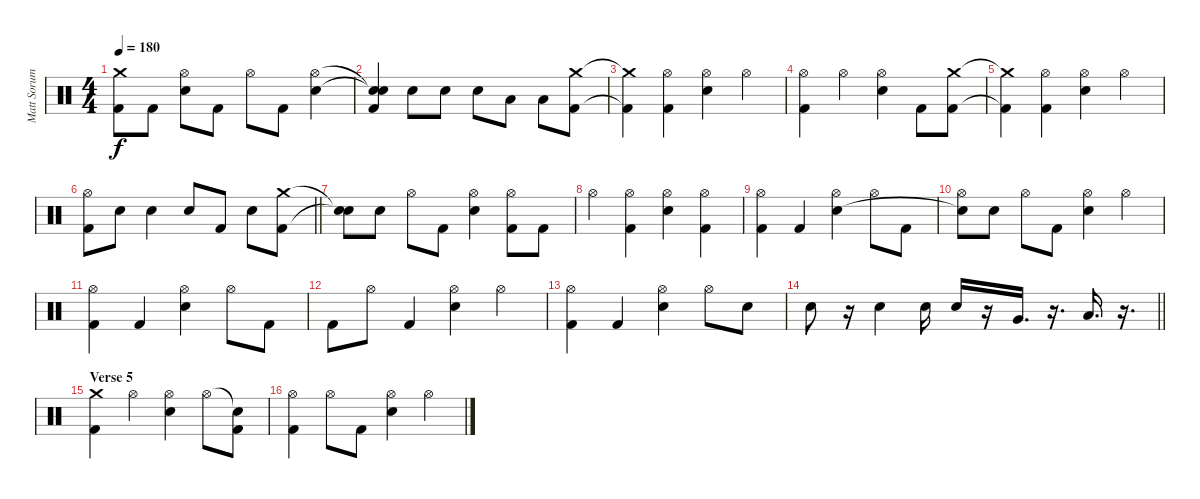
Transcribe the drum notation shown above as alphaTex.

\track ("Matt Sorum" "Matt Sorum") {instrument percussion}
\staff {score}
\articulation defaults
\ts (4 4)
\tempo 180
\clef neutral
\ks c
("Crash medium (hit)"{t} "Kick (hit) 2"{t}).8{dy f} "Kick (hit) 2".8 ("Hi-Hat (open)" "Electric Snare (hit)").8 "Kick (hit) 2".8 "Hi-Hat (open)".8 "Kick (hit) 2".8 ("Hi-Hat (open)" "Electric Snare (hit)").4 |
("Snare (hit)"{t} "Snare (hit)"{t} "Kick (hit) 2").4 "Electric Snare (hit)".8 "Electric Snare (hit)".8 "Electric Snare (hit)".8 "Low Tom (hit)".8 "Low Tom (hit)".8 ("Crash medium (hit)" "Kick (hit) 2").8 |
("Crash medium (hit)"{t} "Kick (hit) 2"{t}).4 ("Hi-Hat (open)" "Kick (hit) 2").4 ("Hi-Hat (open)" "Electric Snare (hit)").4 "Hi-Hat (open)".4 |
("Hi-Hat (open)" "Kick (hit) 2").4 "Hi-Hat (open)".4 ("Hi-Hat (open)" "Electric Snare (hit)").4 "Kick (hit) 2".8 ("Crash medium (hit)" "Kick (hit) 2").8 |
("Crash medium (hit)"{t} "Kick (hit) 2"{t}).4 ("Hi-Hat (open)" "Kick (hit) 2").4 ("Hi-Hat (open)" "Electric Snare (hit)").4 "Hi-Hat (open)".4 |
\barLineRight lightlight
("Hi-Hat (open)" "Kick (hit) 2").8 "Electric Snare (hit)".8 "Electric Snare (hit)".4 "Electric Snare (hit)".8 "Kick (hit) 2".8 "Electric Snare (hit)".8 ("Crash medium (hit)" "Kick (hit) 2").8 |
("Snare (hit)"{t} "Snare (hit)"{t}).8 "Electric Snare (hit)".8 "Hi-Hat (open)".8 "Kick (hit) 2".8 ("Hi-Hat (open)" "Electric Snare (hit)").4 ("Hi-Hat (open)" "Kick (hit) 2").8 "Kick (hit) 2".8 |
"Hi-Hat (open)".4 ("Hi-Hat (open)" "Kick (hit) 2").4 ("Hi-Hat (open)" "Electric Snare (hit)").4 ("Hi-Hat (open)" "Kick (hit) 2").4 |
("Hi-Hat (open)" "Kick (hit) 2").4 "Kick (hit) 2".4 ("Hi-Hat (open)" "Electric Snare (hit)").4 "Hi-Hat (open)".8 "Kick (hit) 2".8 |
("Hi-Hat (open)" "Snare (hit)"{t}).8 "Electric Snare (hit)".8 "Hi-Hat (open)".8 "Kick (hit) 2".8 ("Hi-Hat (open)" "Electric Snare (hit)").4 "Hi-Hat (open)".4 |
("Hi-Hat (open)" "Kick (hit) 2").4 "Kick (hit) 2".4 ("Hi-Hat (open)" "Electric Snare (hit)").4 "Hi-Hat (open)".8 "Kick (hit) 2".8 |
"Kick (hit) 2".8 "Hi-Hat (open)".8 "Kick (hit) 2".4 ("Hi-Hat (open)" "Electric Snare (hit)").4 "Hi-Hat (open)".4 |
("Hi-Hat (open)" "Kick (hit) 2").4 "Kick (hit) 2".4 ("Hi-Hat (open)" "Electric Snare (hit)").4 "Hi-Hat (open)".8 "Electric Snare (hit)".8 |
\barLineRight lightlight "Electric Snare (hit)".8
r.16 "Electric Snare (hit)".4 "Electric Snare (hit)".16 "Electric Snare (hit)".16 r.16 "Very Low Tom (hit)".16{d} r.16{d} "Low Floor Tom (hit)".16{d} r.16{d} |
\section ("" "Verse 5")
("Crash medium (hit)" "Kick (hit) 2").4 "Hi-Hat (open)".4 ("Hi-Hat (open)" "Electric Snare (hit)").4 "Hi-Hat (open)".8 ("Snare (hit)"{t} "Kick (hit) 2").8 |
("Hi-Hat (open)" "Kick (hit) 2").4 "Hi-Hat (open)".8 "Kick (hit) 2".8 ("Hi-Hat (open)" "Electric Snare (hit)").4 "Hi-Hat (open)".4
